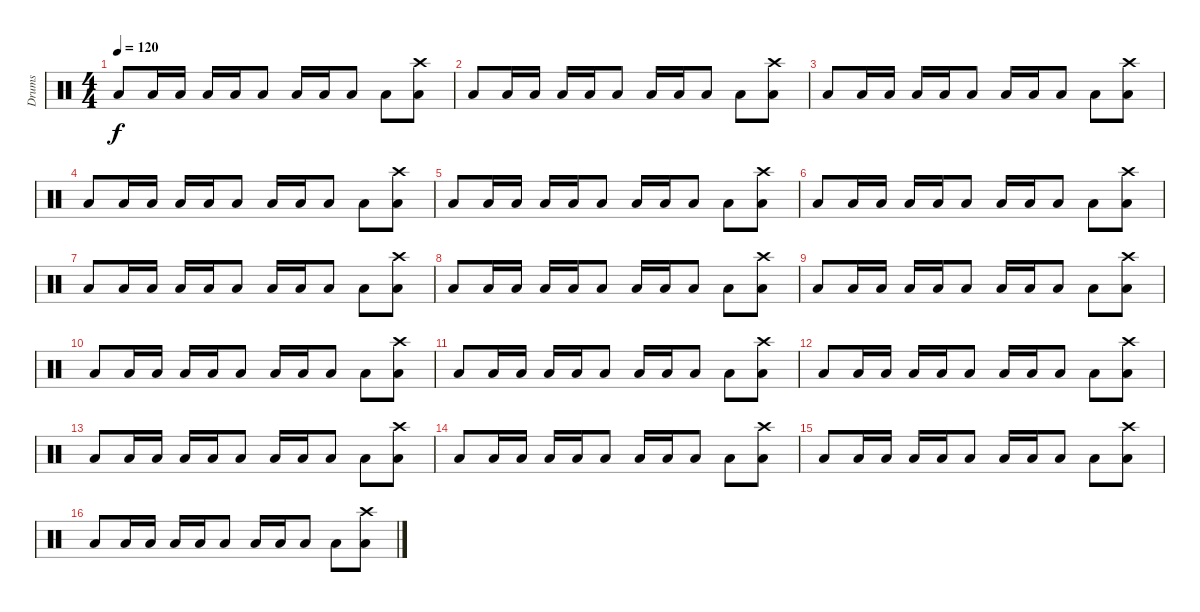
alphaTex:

\track ("Drums" "Drums") {instrument percussion}
\staff {score}
\articulation defaults
\ts (4 4)
\tempo 120
\clef neutral
\ks c "Low Tom (hit)".8{dy f} "Low Tom (hit)".16 "Low Tom (hit)".16 "Low Tom (hit)".16 "Low Tom (hit)".16 "Low Tom (hit)".8 "Low Tom (hit)".16 "Low Tom (hit)".16 "Low Tom (hit)".8 "Low Tom (hit)".8
("Low Tom (hit)" "Crash high (hit)").8 |
"Low Tom (hit)".8 "Low Tom (hit)".16 "Low Tom (hit)".16 "Low Tom (hit)".16 "Low Tom (hit)".16 "Low Tom (hit)".8 "Low Tom (hit)".16 "Low Tom (hit)".16 "Low Tom (hit)".8 "Low Tom (hit)".8 ("Low Tom (hit)" "Crash high (hit)").8 |
"Low Tom (hit)".8 "Low Tom (hit)".16 "Low Tom (hit)".16 "Low Tom (hit)".16 "Low Tom (hit)".16 "Low Tom (hit)".8 "Low Tom (hit)".16 "Low Tom (hit)".16 "Low Tom (hit)".8 "Low Tom (hit)".8 ("Low Tom (hit)" "Crash high (hit)").8 |
"Low Tom (hit)".8 "Low Tom (hit)".16 "Low Tom (hit)".16 "Low Tom (hit)".16 "Low Tom (hit)".16 "Low Tom (hit)".8 "Low Tom (hit)".16 "Low Tom (hit)".16 "Low Tom (hit)".8 "Low Tom (hit)".8 ("Low Tom (hit)" "Crash high (hit)").8 |
"Low Tom (hit)".8 "Low Tom (hit)".16 "Low Tom (hit)".16 "Low Tom (hit)".16 "Low Tom (hit)".16 "Low Tom (hit)".8 "Low Tom (hit)".16 "Low Tom (hit)".16 "Low Tom (hit)".8 "Low Tom (hit)".8 ("Low Tom (hit)" "Crash high (hit)").8 |
"Low Tom (hit)".8 "Low Tom (hit)".16 "Low Tom (hit)".16 "Low Tom (hit)".16 "Low Tom (hit)".16 "Low Tom (hit)".8 "Low Tom (hit)".16 "Low Tom (hit)".16 "Low Tom (hit)".8 "Low Tom (hit)".8 ("Low Tom (hit)" "Crash high (hit)").8 |
"Low Tom (hit)".8 "Low Tom (hit)".16 "Low Tom (hit)".16 "Low Tom (hit)".16 "Low Tom (hit)".16 "Low Tom (hit)".8 "Low Tom (hit)".16 "Low Tom (hit)".16 "Low Tom (hit)".8 "Low Tom (hit)".8 ("Low Tom (hit)" "Crash high (hit)").8 |
"Low Tom (hit)".8 "Low Tom (hit)".16 "Low Tom (hit)".16 "Low Tom (hit)".16 "Low Tom (hit)".16 "Low Tom (hit)".8 "Low Tom (hit)".16 "Low Tom (hit)".16 "Low Tom (hit)".8 "Low Tom (hit)".8 ("Low Tom (hit)" "Crash high (hit)").8 |
"Low Tom (hit)".8 "Low Tom (hit)".16 "Low Tom (hit)".16 "Low Tom (hit)".16 "Low Tom (hit)".16 "Low Tom (hit)".8 "Low Tom (hit)".16 "Low Tom (hit)".16 "Low Tom (hit)".8 "Low Tom (hit)".8 ("Low Tom (hit)" "Crash high (hit)").8 |
"Low Tom (hit)".8 "Low Tom (hit)".16 "Low Tom (hit)".16 "Low Tom (hit)".16 "Low Tom (hit)".16 "Low Tom (hit)".8 "Low Tom (hit)".16 "Low Tom (hit)".16 "Low Tom (hit)".8 "Low Tom (hit)".8 ("Low Tom (hit)" "Crash high (hit)").8 |
"Low Tom (hit)".8 "Low Tom (hit)".16 "Low Tom (hit)".16 "Low Tom (hit)".16 "Low Tom (hit)".16 "Low Tom (hit)".8 "Low Tom (hit)".16 "Low Tom (hit)".16 "Low Tom (hit)".8 "Low Tom (hit)".8 ("Low Tom (hit)" "Crash high (hit)").8 |
"Low Tom (hit)".8 "Low Tom (hit)".16 "Low Tom (hit)".16 "Low Tom (hit)".16 "Low Tom (hit)".16 "Low Tom (hit)".8 "Low Tom (hit)".16 "Low Tom (hit)".16 "Low Tom (hit)".8 "Low Tom (hit)".8 ("Low Tom (hit)" "Crash high (hit)").8 |
"Low Tom (hit)".8 "Low Tom (hit)".16 "Low Tom (hit)".16 "Low Tom (hit)".16 "Low Tom (hit)".16 "Low Tom (hit)".8 "Low Tom (hit)".16 "Low Tom (hit)".16 "Low Tom (hit)".8 "Low Tom (hit)".8 ("Low Tom (hit)" "Crash high (hit)").8 |
"Low Tom (hit)".8 "Low Tom (hit)".16 "Low Tom (hit)".16 "Low Tom (hit)".16 "Low Tom (hit)".16 "Low Tom (hit)".8 "Low Tom (hit)".16 "Low Tom (hit)".16 "Low Tom (hit)".8 "Low Tom (hit)".8 ("Low Tom (hit)" "Crash high (hit)").8 |
"Low Tom (hit)".8 "Low Tom (hit)".16 "Low Tom (hit)".16 "Low Tom (hit)".16 "Low Tom (hit)".16 "Low Tom (hit)".8 "Low Tom (hit)".16 "Low Tom (hit)".16 "Low Tom (hit)".8 "Low Tom (hit)".8 ("Low Tom (hit)" "Crash high (hit)").8 |
"Low Tom (hit)".8 "Low Tom (hit)".16 "Low Tom (hit)".16 "Low Tom (hit)".16 "Low Tom (hit)".16 "Low Tom (hit)".8 "Low Tom (hit)".16 "Low Tom (hit)".16 "Low Tom (hit)".8 "Low Tom (hit)".8 ("Low Tom (hit)" "Crash high (hit)").8
